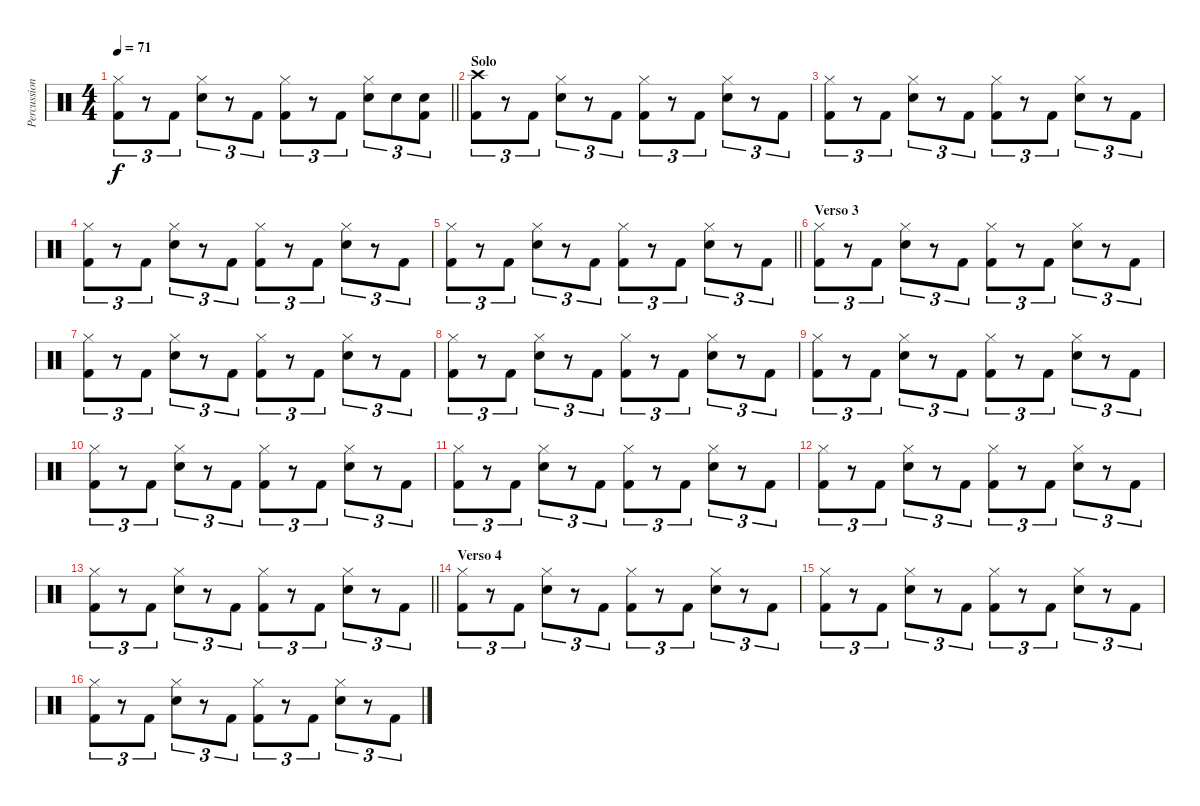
\track ("Percussion" "Percussion") {instrument percussion}
\staff {score}
\articulation defaults
\ts (4 4)
\tempo 71
\clef neutral
\barLineRight lightlight
\ks c
("Hi-Hat (closed)" "Kick (hit) 2").8{tu (3 2) dy f} r.8{tu (3 2)} "Kick (hit) 2".8{tu (3 2)} ("Hi-Hat (closed)" "Snare (hit) 2").8{tu (3 2)} r.8{tu (3 2)} "Kick (hit) 2".8{tu (3 2)} ("Hi-Hat (closed)" "Kick (hit) 2").8{tu (3 2)} r.8{tu (3 2)} "Kick (hit) 2".8{tu (3 2)} ("Hi-Hat (closed)" "Snare (hit) 2").8{tu (3 2)} "Snare (hit) 2".8{tu (3 2)} ("Snare (hit) 2" "Kick (hit) 2").8{tu (3 2)} |
\section ("" "Solo")
("Crash high (hit)" "Kick (hit) 2").8{tu (3 2)} r.8{tu (3 2)} "Kick (hit) 2".8{tu (3 2)} ("Hi-Hat (closed)" "Snare (hit) 2").8{tu (3 2)} r.8{tu (3 2)} "Kick (hit) 2".8{tu (3 2)} ("Hi-Hat (closed)" "Kick (hit) 2").8{tu (3 2)} r.8{tu (3 2)} "Kick (hit) 2".8{tu (3 2)} ("Hi-Hat (closed)" "Snare (hit) 2").8{tu (3 2)} r.8{tu (3 2)} "Kick (hit) 2".8{tu (3 2)} |
("Hi-Hat (closed)" "Kick (hit) 2").8{tu (3 2)} r.8{tu (3 2)} "Kick (hit) 2".8{tu (3 2)} ("Hi-Hat (closed)" "Snare (hit) 2").8{tu (3 2)} r.8{tu (3 2)} "Kick (hit) 2".8{tu (3 2)} ("Hi-Hat (closed)" "Kick (hit) 2").8{tu (3 2)} r.8{tu (3 2)} "Kick (hit) 2".8{tu (3 2)} ("Hi-Hat (closed)" "Snare (hit) 2").8{tu (3 2)} r.8{tu (3 2)} "Kick (hit) 2".8{tu (3 2)} |
("Hi-Hat (closed)" "Kick (hit) 2").8{tu (3 2)} r.8{tu (3 2)} "Kick (hit) 2".8{tu (3 2)} ("Hi-Hat (closed)" "Snare (hit) 2").8{tu (3 2)} r.8{tu (3 2)} "Kick (hit) 2".8{tu (3 2)} ("Hi-Hat (closed)" "Kick (hit) 2").8{tu (3 2)} r.8{tu (3 2)} "Kick (hit) 2".8{tu (3 2)} ("Hi-Hat (closed)" "Snare (hit) 2").8{tu (3 2)} r.8{tu (3 2)} "Kick (hit) 2".8{tu (3 2)} |
\barLineRight lightlight
("Hi-Hat (closed)" "Kick (hit) 2").8{tu (3 2)} r.8{tu (3 2)} "Kick (hit) 2".8{tu (3 2)} ("Hi-Hat (closed)" "Snare (hit) 2").8{tu (3 2)} r.8{tu (3 2)} "Kick (hit) 2".8{tu (3 2)} ("Hi-Hat (closed)" "Kick (hit) 2").8{tu (3 2)} r.8{tu (3 2)} "Kick (hit) 2".8{tu (3 2)} ("Hi-Hat (closed)" "Snare (hit) 2").8{tu (3 2)} r.8{tu (3 2)} "Kick (hit) 2".8{tu (3 2)} |
\section ("" "Verso 3")
("Hi-Hat (closed)" "Kick (hit) 2").8{tu (3 2)} r.8{tu (3 2)} "Kick (hit) 2".8{tu (3 2)} ("Hi-Hat (closed)" "Snare (hit) 2").8{tu (3 2)} r.8{tu (3 2)} "Kick (hit) 2".8{tu (3 2)} ("Hi-Hat (closed)" "Kick (hit) 2").8{tu (3 2)} r.8{tu (3 2)} "Kick (hit) 2".8{tu (3 2)} ("Hi-Hat (closed)" "Snare (hit) 2").8{tu (3 2)} r.8{tu (3 2)} "Kick (hit) 2".8{tu (3 2)} |
("Hi-Hat (closed)" "Kick (hit) 2").8{tu (3 2)} r.8{tu (3 2)} "Kick (hit) 2".8{tu (3 2)} ("Hi-Hat (closed)" "Snare (hit) 2").8{tu (3 2)} r.8{tu (3 2)} "Kick (hit) 2".8{tu (3 2)} ("Hi-Hat (closed)" "Kick (hit) 2").8{tu (3 2)} r.8{tu (3 2)} "Kick (hit) 2".8{tu (3 2)} ("Hi-Hat (closed)" "Snare (hit) 2").8{tu (3 2)} r.8{tu (3 2)} "Kick (hit) 2".8{tu (3 2)} |
("Hi-Hat (closed)" "Kick (hit) 2").8{tu (3 2)} r.8{tu (3 2)} "Kick (hit) 2".8{tu (3 2)} ("Hi-Hat (closed)" "Snare (hit) 2").8{tu (3 2)} r.8{tu (3 2)} "Kick (hit) 2".8{tu (3 2)} ("Hi-Hat (closed)" "Kick (hit) 2").8{tu (3 2)} r.8{tu (3 2)} "Kick (hit) 2".8{tu (3 2)} ("Hi-Hat (closed)" "Snare (hit) 2").8{tu (3 2)} r.8{tu (3 2)} "Kick (hit) 2".8{tu (3 2)} |
("Hi-Hat (closed)" "Kick (hit) 2").8{tu (3 2)} r.8{tu (3 2)} "Kick (hit) 2".8{tu (3 2)} ("Hi-Hat (closed)" "Snare (hit) 2").8{tu (3 2)} r.8{tu (3 2)} "Kick (hit) 2".8{tu (3 2)} ("Hi-Hat (closed)" "Kick (hit) 2").8{tu (3 2)} r.8{tu (3 2)} "Kick (hit) 2".8{tu (3 2)} ("Hi-Hat (closed)" "Snare (hit) 2").8{tu (3 2)} r.8{tu (3 2)} "Kick (hit) 2".8{tu (3 2)} |
("Hi-Hat (closed)" "Kick (hit) 2").8{tu (3 2)} r.8{tu (3 2)} "Kick (hit) 2".8{tu (3 2)} ("Hi-Hat (closed)" "Snare (hit) 2").8{tu (3 2)} r.8{tu (3 2)} "Kick (hit) 2".8{tu (3 2)} ("Hi-Hat (closed)" "Kick (hit) 2").8{tu (3 2)} r.8{tu (3 2)} "Kick (hit) 2".8{tu (3 2)} ("Hi-Hat (closed)" "Snare (hit) 2").8{tu (3 2)} r.8{tu (3 2)} "Kick (hit) 2".8{tu (3 2)} |
("Hi-Hat (closed)" "Kick (hit) 2").8{tu (3 2)} r.8{tu (3 2)} "Kick (hit) 2".8{tu (3 2)} ("Hi-Hat (closed)" "Snare (hit) 2").8{tu (3 2)} r.8{tu (3 2)} "Kick (hit) 2".8{tu (3 2)} ("Hi-Hat (closed)" "Kick (hit) 2").8{tu (3 2)} r.8{tu (3 2)} "Kick (hit) 2".8{tu (3 2)} ("Hi-Hat (closed)" "Snare (hit) 2").8{tu (3 2)} r.8{tu (3 2)} "Kick (hit) 2".8{tu (3 2)} |
("Hi-Hat (closed)" "Kick (hit) 2").8{tu (3 2)} r.8{tu (3 2)} "Kick (hit) 2".8{tu (3 2)} ("Hi-Hat (closed)" "Snare (hit) 2").8{tu (3 2)} r.8{tu (3 2)} "Kick (hit) 2".8{tu (3 2)} ("Hi-Hat (closed)" "Kick (hit) 2").8{tu (3 2)} r.8{tu (3 2)} "Kick (hit) 2".8{tu (3 2)} ("Hi-Hat (closed)" "Snare (hit) 2").8{tu (3 2)} r.8{tu (3 2)} "Kick (hit) 2".8{tu (3 2)} |
\barLineRight lightlight
("Hi-Hat (closed)" "Kick (hit) 2").8{tu (3 2)} r.8{tu (3 2)} "Kick (hit) 2".8{tu (3 2)} ("Hi-Hat (closed)" "Snare (hit) 2").8{tu (3 2)} r.8{tu (3 2)} "Kick (hit) 2".8{tu (3 2)} ("Hi-Hat (closed)" "Kick (hit) 2").8{tu (3 2)} r.8{tu (3 2)} "Kick (hit) 2".8{tu (3 2)} ("Hi-Hat (closed)" "Snare (hit) 2").8{tu (3 2)} r.8{tu (3 2)} "Kick (hit) 2".8{tu (3 2)} |
\section ("" "Verso 4")
("Hi-Hat (closed)" "Kick (hit) 2").8{tu (3 2)} r.8{tu (3 2)} "Kick (hit) 2".8{tu (3 2)} ("Hi-Hat (closed)" "Snare (hit) 2").8{tu (3 2)} r.8{tu (3 2)} "Kick (hit) 2".8{tu (3 2)} ("Hi-Hat (closed)" "Kick (hit) 2").8{tu (3 2)} r.8{tu (3 2)} "Kick (hit) 2".8{tu (3 2)} ("Hi-Hat (closed)" "Snare (hit) 2").8{tu (3 2)} r.8{tu (3 2)} "Kick (hit) 2".8{tu (3 2)} |
("Hi-Hat (closed)" "Kick (hit) 2").8{tu (3 2)} r.8{tu (3 2)} "Kick (hit) 2".8{tu (3 2)} ("Hi-Hat (closed)" "Snare (hit) 2").8{tu (3 2)} r.8{tu (3 2)} "Kick (hit) 2".8{tu (3 2)} ("Hi-Hat (closed)" "Kick (hit) 2").8{tu (3 2)} r.8{tu (3 2)} "Kick (hit) 2".8{tu (3 2)} ("Hi-Hat (closed)" "Snare (hit) 2").8{tu (3 2)} r.8{tu (3 2)} "Kick (hit) 2".8{tu (3 2)} |
("Hi-Hat (closed)" "Kick (hit) 2").8{tu (3 2)} r.8{tu (3 2)} "Kick (hit) 2".8{tu (3 2)} ("Hi-Hat (closed)" "Snare (hit) 2").8{tu (3 2)} r.8{tu (3 2)} "Kick (hit) 2".8{tu (3 2)} ("Hi-Hat (closed)" "Kick (hit) 2").8{tu (3 2)} r.8{tu (3 2)} "Kick (hit) 2".8{tu (3 2)} ("Hi-Hat (closed)" "Snare (hit) 2").8{tu (3 2)} r.8{tu (3 2)} "Kick (hit) 2".8{tu (3 2)}
